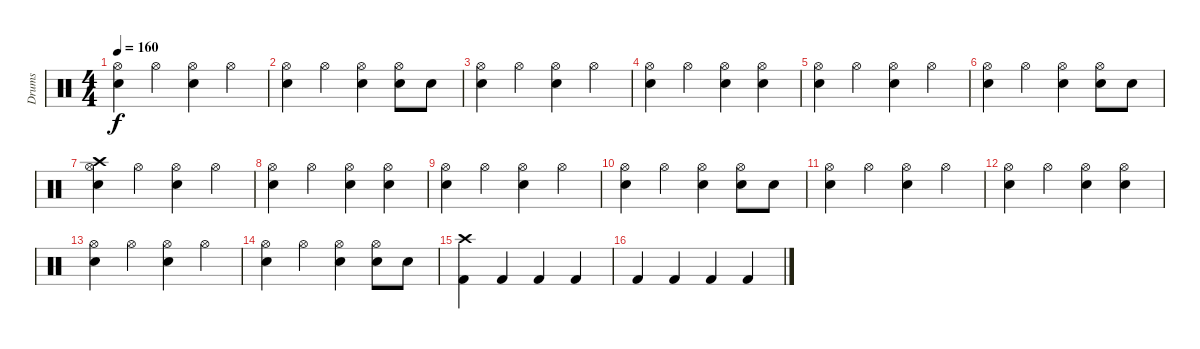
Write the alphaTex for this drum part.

\track ("Drums" "Drums") {instrument percussion}
\staff {score}
\articulation defaults
\ts (4 4)
\tempo 160
\clef neutral
\ks c
("Hi-Hat (open)" "Electric Snare (hit)").4{dy f} "Hi-Hat (open)".4 ("Hi-Hat (open)" "Electric Snare (hit)").4 "Hi-Hat (open)".4 |
("Hi-Hat (open)" "Electric Snare (hit)").4 "Hi-Hat (open)".4 ("Hi-Hat (open)" "Electric Snare (hit)").4 ("Hi-Hat (open)" "Electric Snare (hit)").8 "Electric Snare (hit)".8 |
("Hi-Hat (open)" "Electric Snare (hit)").4 "Hi-Hat (open)".4 ("Hi-Hat (open)" "Electric Snare (hit)").4 "Hi-Hat (open)".4 |
("Hi-Hat (open)" "Electric Snare (hit)").4 "Hi-Hat (open)".4 ("Hi-Hat (open)" "Electric Snare (hit)").4 ("Hi-Hat (open)" "Electric Snare (hit)").4 |
("Hi-Hat (open)" "Electric Snare (hit)").4 "Hi-Hat (open)".4 ("Hi-Hat (open)" "Electric Snare (hit)").4 "Hi-Hat (open)".4 |
("Hi-Hat (open)" "Electric Snare (hit)").4 "Hi-Hat (open)".4 ("Hi-Hat (open)" "Electric Snare (hit)").4 ("Hi-Hat (open)" "Electric Snare (hit)").8 "Electric Snare (hit)".8 |
("Crash high (hit)" "Hi-Hat (open)" "Electric Snare (hit)").4 "Hi-Hat (open)".4 ("Hi-Hat (open)" "Electric Snare (hit)").4 "Hi-Hat (open)".4 |
("Hi-Hat (open)" "Electric Snare (hit)").4 "Hi-Hat (open)".4 ("Hi-Hat (open)" "Electric Snare (hit)").4 ("Hi-Hat (open)" "Electric Snare (hit)").4 |
("Hi-Hat (open)" "Electric Snare (hit)").4 "Hi-Hat (open)".4 ("Hi-Hat (open)" "Electric Snare (hit)").4 "Hi-Hat (open)".4 |
("Hi-Hat (open)" "Electric Snare (hit)").4 "Hi-Hat (open)".4 ("Hi-Hat (open)" "Electric Snare (hit)").4 ("Hi-Hat (open)" "Electric Snare (hit)").8 "Electric Snare (hit)".8 |
("Hi-Hat (open)" "Electric Snare (hit)").4 "Hi-Hat (open)".4 ("Hi-Hat (open)" "Electric Snare (hit)").4 "Hi-Hat (open)".4 |
("Hi-Hat (open)" "Electric Snare (hit)").4 "Hi-Hat (open)".4 ("Hi-Hat (open)" "Electric Snare (hit)").4 ("Hi-Hat (open)" "Electric Snare (hit)").4 |
("Hi-Hat (open)" "Electric Snare (hit)").4 "Hi-Hat (open)".4 ("Hi-Hat (open)" "Electric Snare (hit)").4 "Hi-Hat (open)".4 |
("Hi-Hat (open)" "Electric Snare (hit)").4 "Hi-Hat (open)".4 ("Hi-Hat (open)" "Electric Snare (hit)").4 ("Hi-Hat (open)" "Electric Snare (hit)").8 "Electric Snare (hit)".8 |
("Kick (hit) 2" "Crash high (hit)").4 "Kick (hit) 2".4 "Kick (hit) 2".4 "Kick (hit) 2".4 |
"Kick (hit) 2".4 "Kick (hit) 2".4 "Kick (hit) 2".4 "Kick (hit) 2".4
